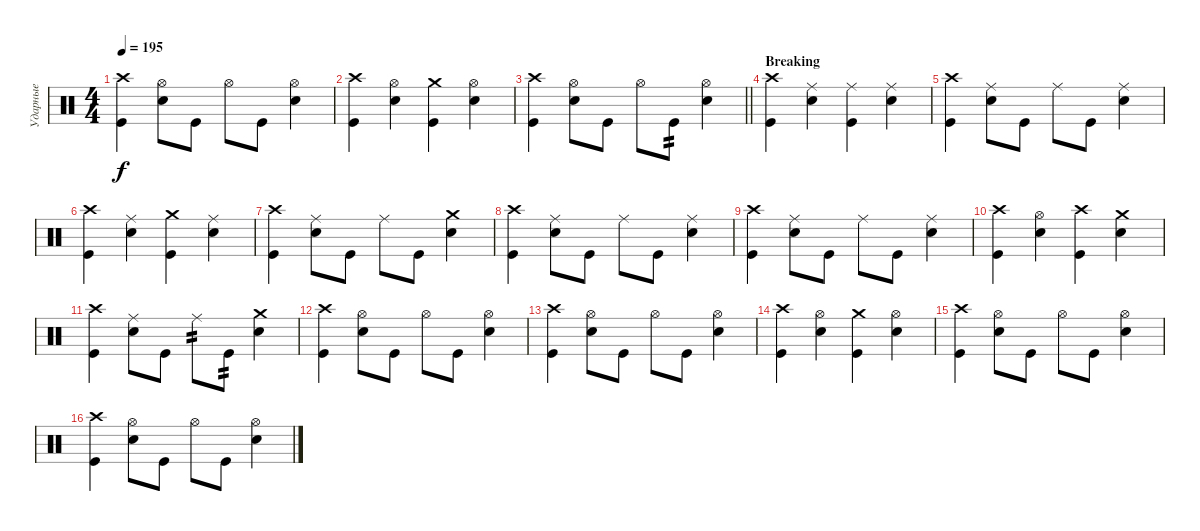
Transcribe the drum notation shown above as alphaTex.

\track ("Ударные" "Ударные") {instrument percussion}
\staff {score}
\articulation defaults
\ts (4 4)
\tempo 195
\clef neutral
\ks c
("Kick (hit)" "Crash high (hit)").4{dy f} ("Snare (hit) 2" "Hi-Hat (open)").8 "Kick (hit)".8 "Hi-Hat (open)".8 "Kick (hit)".8 ("Snare (hit) 2" "Hi-Hat (open)").4 |
("Kick (hit)" "Crash high (hit)").4 ("Snare (hit) 2" "Hi-Hat (open)").4 ("Kick (hit)" "Crash medium (hit)").4 ("Snare (hit) 2" "Hi-Hat (open)").4 |
\barLineRight lightlight
("Kick (hit)" "Crash high (hit)").4 ("Snare (hit) 2" "Hi-Hat (open)").8 "Kick (hit)".8 "Hi-Hat (open)".8 "Kick (hit)".8{tp 2} ("Snare (hit) 2" "Hi-Hat (open)").4 |
\section ("" "Breaking")
("Kick (hit)" "Crash high (hit)").4 ("Ride (middle)" "Snare (hit) 2").4 ("Ride (middle)" "Kick (hit)").4 ("Ride (middle)" "Snare (hit) 2").4 |
("Kick (hit)" "Crash high (hit)").4 ("Snare (hit) 2" "Ride (middle)").8 "Kick (hit)".8 "Ride (middle)".8 "Kick (hit)".8 ("Snare (hit) 2" "Ride (middle)").4 |
("Kick (hit)" "Crash high (hit)").4 ("Ride (middle)" "Snare (hit) 2").4 ("Crash medium (hit)" "Kick (hit)").4 ("Ride (middle)" "Snare (hit) 2").4 |
("Kick (hit)" "Crash high (hit)").4 ("Snare (hit) 2" "Ride (middle)").8 "Kick (hit)".8 "Ride (middle)".8 "Kick (hit)".8 ("Snare (hit) 2" "Crash medium (hit)").4 |
("Kick (hit)" "Crash high (hit)").4 ("Snare (hit) 2" "Ride (middle)").8 "Kick (hit)".8 "Ride (middle)".8 "Kick (hit)".8 ("Snare (hit) 2" "Ride (middle)").4 |
("Kick (hit)" "Crash high (hit)").4 ("Snare (hit) 2" "Ride (middle)").8 "Kick (hit)".8 "Ride (middle)".8 "Kick (hit)".8 ("Snare (hit) 2" "Ride (middle)").4 |
("Kick (hit)" "Crash high (hit)").4 ("Snare (hit) 2" "Hi-Hat (open)").4 ("Kick (hit)" "Crash high (hit)").4 ("Snare (hit) 2" "Crash medium (hit)").4 |
("Kick (hit)" "Crash high (hit)").4 ("Snare (hit) 2" "Ride (middle)").8 "Kick (hit)".8 "Ride (middle)".8{tp 2} "Kick (hit)".8{tp 2} ("Snare (hit) 2" "Crash medium (hit)").4 |
("Kick (hit)" "Crash high (hit)").4 ("Snare (hit) 2" "Hi-Hat (open)").8 "Kick (hit)".8 "Hi-Hat (open)".8 "Kick (hit)".8 ("Snare (hit) 2" "Hi-Hat (open)").4 |
("Kick (hit)" "Crash high (hit)").4 ("Snare (hit) 2" "Hi-Hat (open)").8 "Kick (hit)".8 "Hi-Hat (open)".8 "Kick (hit)".8 ("Snare (hit) 2" "Hi-Hat (open)").4 |
("Kick (hit)" "Crash high (hit)").4 ("Snare (hit) 2" "Hi-Hat (open)").4 ("Kick (hit)" "Crash medium (hit)").4 ("Snare (hit) 2" "Hi-Hat (open)").4 |
("Kick (hit)" "Crash high (hit)").4 ("Snare (hit) 2" "Hi-Hat (open)").8 "Kick (hit)".8 "Hi-Hat (open)".8 "Kick (hit)".8 ("Snare (hit) 2" "Hi-Hat (open)").4 |
("Kick (hit)" "Crash high (hit)").4 ("Snare (hit) 2" "Hi-Hat (open)").8 "Kick (hit)".8 "Hi-Hat (open)".8 "Kick (hit)".8 ("Snare (hit) 2" "Hi-Hat (open)").4
